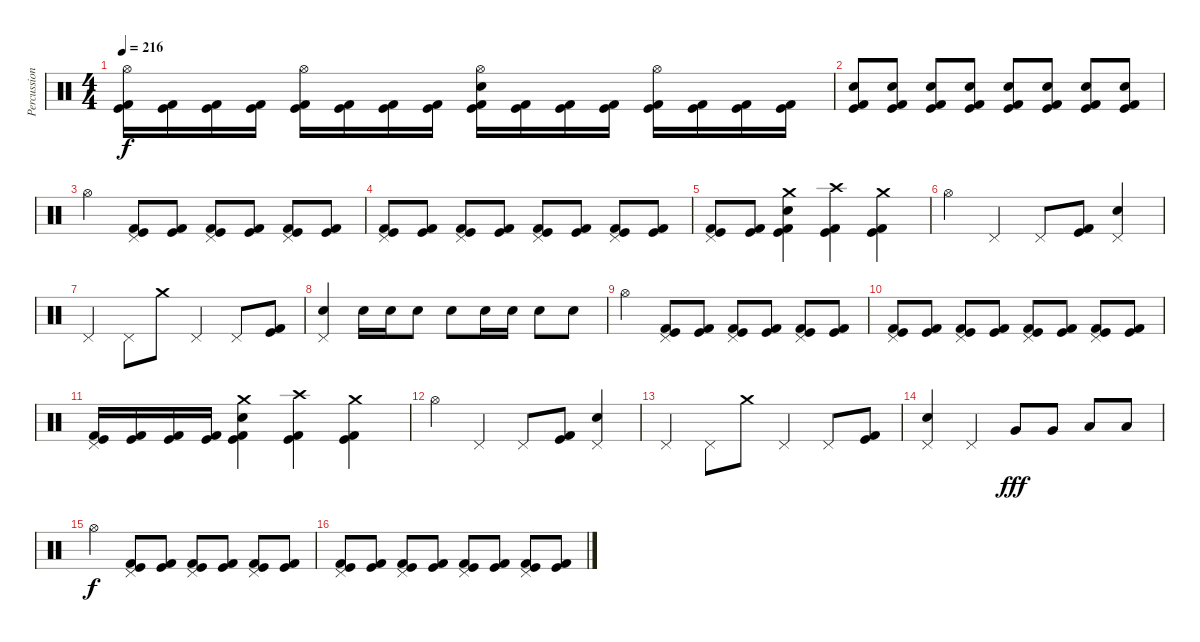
\track ("Percussions" "Percussion") {instrument percussion}
\staff {score}
\articulation defaults
\ts (4 4)
\tempo 216
\clef neutral
\ks c
("Hi-Hat (open)" "Kick (hit)" "Kick (hit) 2").16{dy f} ("Kick (hit)" "Kick (hit) 2").16 ("Kick (hit)" "Kick (hit) 2").16 ("Kick (hit)" "Kick (hit) 2").16 ("Hi-Hat (open)" "Kick (hit)" "Kick (hit) 2").16 ("Kick (hit)" "Kick (hit) 2").16 ("Kick (hit)" "Kick (hit) 2").16 ("Kick (hit)" "Kick (hit) 2").16 ("Hi-Hat (open)" "Electric Snare (hit)" "Kick (hit)" "Kick (hit) 2").16 ("Kick (hit)" "Kick (hit) 2").16 ("Kick (hit)" "Kick (hit) 2").16 ("Kick (hit)" "Kick (hit) 2").16 ("Hi-Hat (open)" "Kick (hit)" "Kick (hit) 2").16 ("Kick (hit)" "Kick (hit) 2").16 ("Kick (hit)" "Kick (hit) 2").16 ("Kick (hit)" "Kick (hit) 2").16 |
("Electric Snare (hit)" "Kick (hit)" "Kick (hit) 2").8 ("Electric Snare (hit)" "Kick (hit)" "Kick (hit) 2").8 ("Electric Snare (hit)" "Kick (hit)" "Kick (hit) 2").8 ("Electric Snare (hit)" "Kick (hit)" "Kick (hit) 2").8 ("Electric Snare (hit)" "Kick (hit)" "Kick (hit) 2").8 ("Electric Snare (hit)" "Kick (hit)" "Kick (hit) 2").8 ("Electric Snare (hit)" "Kick (hit)" "Kick (hit) 2").8 ("Electric Snare (hit)" "Kick (hit)" "Kick (hit) 2").8 |
"Hi-Hat (open)".4 ("Pedal Hi-Hat (hit)" "Kick (hit)" "Kick (hit) 2").8 ("Kick (hit)" "Kick (hit) 2").8 ("Pedal Hi-Hat (hit)" "Kick (hit)" "Kick (hit) 2").8 ("Kick (hit)" "Kick (hit) 2").8 ("Pedal Hi-Hat (hit)" "Kick (hit)" "Kick (hit) 2").8 ("Kick (hit)" "Kick (hit) 2").8 |
("Pedal Hi-Hat (hit)" "Kick (hit)" "Kick (hit) 2").8 ("Kick (hit)" "Kick (hit) 2").8 ("Pedal Hi-Hat (hit)" "Kick (hit)" "Kick (hit) 2").8 ("Kick (hit)" "Kick (hit) 2").8 ("Pedal Hi-Hat (hit)" "Kick (hit)" "Kick (hit) 2").8 ("Kick (hit)" "Kick (hit) 2").8 ("Pedal Hi-Hat (hit)" "Kick (hit)" "Kick (hit) 2").8 ("Kick (hit)" "Kick (hit) 2").8 |
("Pedal Hi-Hat (hit)" "Kick (hit)" "Kick (hit) 2").8 ("Kick (hit)" "Kick (hit) 2").8 ("Crash medium (hit)" "Electric Snare (hit)" "Kick (hit)" "Kick (hit) 2").4 ("Crash high (hit)" "Kick (hit)" "Kick (hit) 2").4 ("Crash medium (hit)" "Kick (hit)" "Kick (hit) 2").4 |
"Hi-Hat (open)".4 "Pedal Hi-Hat (hit)".4 "Pedal Hi-Hat (hit)".8 ("Kick (hit)" "Kick (hit) 2").8 ("Pedal Hi-Hat (hit)" "Electric Snare (hit)").4 |
"Pedal Hi-Hat (hit)".4 "Pedal Hi-Hat (hit)".8 "Crash medium (hit)".8 "Pedal Hi-Hat (hit)".4 "Pedal Hi-Hat (hit)".8 ("Kick (hit)" "Kick (hit) 2").8 |
("Pedal Hi-Hat (hit)" "Electric Snare (hit)").4 "Electric Snare (hit)".16 "Electric Snare (hit)".16 "Electric Snare (hit)".8 "Electric Snare (hit)".8 "Electric Snare (hit)".16 "Electric Snare (hit)".16 "Electric Snare (hit)".8 "Electric Snare (hit)".8 |
"Hi-Hat (open)".4 ("Pedal Hi-Hat (hit)" "Kick (hit)" "Kick (hit) 2").8 ("Kick (hit)" "Kick (hit) 2").8 ("Pedal Hi-Hat (hit)" "Kick (hit)" "Kick (hit) 2").8 ("Kick (hit)" "Kick (hit) 2").8 ("Pedal Hi-Hat (hit)" "Kick (hit)" "Kick (hit) 2").8 ("Kick (hit)" "Kick (hit) 2").8 |
("Pedal Hi-Hat (hit)" "Kick (hit)" "Kick (hit) 2").8 ("Kick (hit)" "Kick (hit) 2").8 ("Pedal Hi-Hat (hit)" "Kick (hit)" "Kick (hit) 2").8 ("Kick (hit)" "Kick (hit) 2").8 ("Pedal Hi-Hat (hit)" "Kick (hit)" "Kick (hit) 2").8 ("Kick (hit)" "Kick (hit) 2").8 ("Pedal Hi-Hat (hit)" "Kick (hit)" "Kick (hit) 2").8 ("Kick (hit)" "Kick (hit) 2").8 |
("Pedal Hi-Hat (hit)" "Kick (hit)" "Kick (hit) 2").16 ("Kick (hit)" "Kick (hit) 2").16 ("Kick (hit)" "Kick (hit) 2").16 ("Kick (hit)" "Kick (hit) 2").16 ("Crash medium (hit)" "Electric Snare (hit)" "Kick (hit)" "Kick (hit) 2").4 ("Crash high (hit)" "Kick (hit)" "Kick (hit) 2").4 ("Crash medium (hit)" "Kick (hit)" "Kick (hit) 2").4 |
"Hi-Hat (open)".4 "Pedal Hi-Hat (hit)".4 "Pedal Hi-Hat (hit)".8 ("Kick (hit)" "Kick (hit) 2").8 ("Pedal Hi-Hat (hit)" "Electric Snare (hit)").4 |
"Pedal Hi-Hat (hit)".4 "Pedal Hi-Hat (hit)".8 "Crash medium (hit)".8 "Pedal Hi-Hat (hit)".4 "Pedal Hi-Hat (hit)".8 ("Kick (hit)" "Kick (hit) 2").8 |
("Pedal Hi-Hat (hit)" "Electric Snare (hit)").4 "Pedal Hi-Hat (hit)".4 "Very Low Tom (hit)".8{dy fff} "Very Low Tom (hit)".8 "Low Floor Tom (hit)".8 "Low Floor Tom (hit)".8 |
"Hi-Hat (open)".4{dy f} ("Pedal Hi-Hat (hit)" "Kick (hit)" "Kick (hit) 2").8 ("Kick (hit)" "Kick (hit) 2").8 ("Pedal Hi-Hat (hit)" "Kick (hit)" "Kick (hit) 2").8 ("Kick (hit)" "Kick (hit) 2").8 ("Pedal Hi-Hat (hit)" "Kick (hit)" "Kick (hit) 2").8 ("Kick (hit)" "Kick (hit) 2").8 |
("Pedal Hi-Hat (hit)" "Kick (hit)" "Kick (hit) 2").8 ("Kick (hit)" "Kick (hit) 2").8 ("Pedal Hi-Hat (hit)" "Kick (hit)" "Kick (hit) 2").8 ("Kick (hit)" "Kick (hit) 2").8 ("Pedal Hi-Hat (hit)" "Kick (hit)" "Kick (hit) 2").8 ("Kick (hit)" "Kick (hit) 2").8 ("Pedal Hi-Hat (hit)" "Kick (hit)" "Kick (hit) 2").8 ("Kick (hit)" "Kick (hit) 2").8
